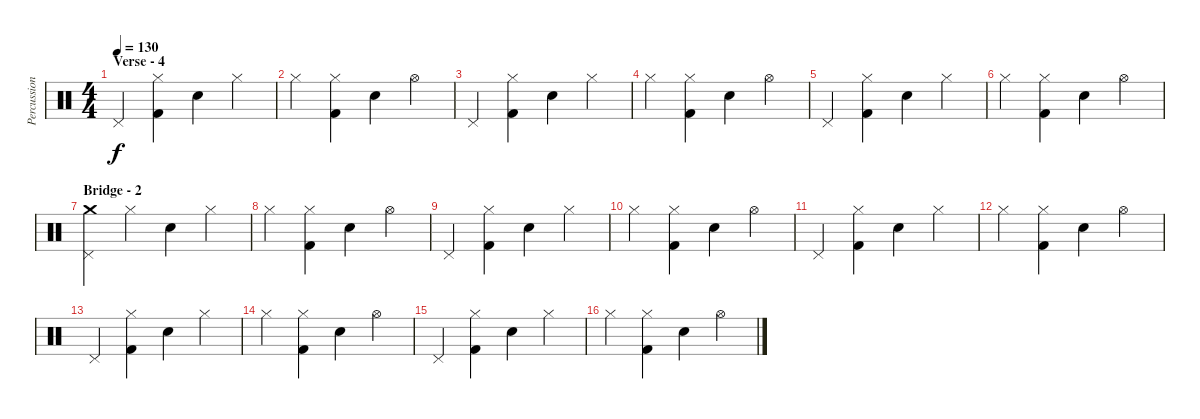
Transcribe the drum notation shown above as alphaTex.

\track ("Percussion" "Percussion") {instrument percussion}
\staff {score}
\articulation defaults
\ts (4 4)
\section ("" "Verse - 4")
\tempo 130
\clef neutral
\ks c "Pedal Hi-Hat (hit)".4{dy f}
("Hi-Hat (closed)" "Kick (hit) 2").4 "Snare (hit) 2".4 "Hi-Hat (closed)".4 |
"Hi-Hat (closed)".4 ("Hi-Hat (closed)" "Kick (hit) 2").4 "Snare (hit) 2".4 "Hi-Hat (open)".4 |
"Pedal Hi-Hat (hit)".4 ("Hi-Hat (closed)" "Kick (hit) 2").4 "Snare (hit) 2".4 "Hi-Hat (closed)".4 |
"Hi-Hat (closed)".4 ("Hi-Hat (closed)" "Kick (hit) 2").4 "Snare (hit) 2".4 "Hi-Hat (open)".4 |
"Pedal Hi-Hat (hit)".4 ("Hi-Hat (closed)" "Kick (hit) 2").4 "Snare (hit) 2".4 "Hi-Hat (closed)".4 |
"Hi-Hat (closed)".4 ("Hi-Hat (closed)" "Kick (hit) 2").4 "Snare (hit) 2".4 "Hi-Hat (open)".4 |
\section ("" "Bridge - 2")
("Crash medium (hit)" "Pedal Hi-Hat (hit)").4 "Hi-Hat (closed)".4 "Snare (hit) 2".4 "Hi-Hat (closed)".4 |
"Hi-Hat (closed)".4 ("Hi-Hat (closed)" "Kick (hit) 2").4 "Snare (hit) 2".4 "Hi-Hat (open)".4 |
"Pedal Hi-Hat (hit)".4 ("Hi-Hat (closed)" "Kick (hit) 2").4 "Snare (hit) 2".4 "Hi-Hat (closed)".4 |
"Hi-Hat (closed)".4 ("Hi-Hat (closed)" "Kick (hit) 2").4 "Snare (hit) 2".4 "Hi-Hat (open)".4 |
"Pedal Hi-Hat (hit)".4 ("Hi-Hat (closed)" "Kick (hit) 2").4 "Snare (hit) 2".4 "Hi-Hat (closed)".4 |
"Hi-Hat (closed)".4 ("Hi-Hat (closed)" "Kick (hit) 2").4 "Snare (hit) 2".4 "Hi-Hat (open)".4 |
"Pedal Hi-Hat (hit)".4 ("Hi-Hat (closed)" "Kick (hit) 2").4 "Snare (hit) 2".4 "Hi-Hat (closed)".4 |
"Hi-Hat (closed)".4 ("Hi-Hat (closed)" "Kick (hit) 2").4 "Snare (hit) 2".4 "Hi-Hat (open)".4 |
"Pedal Hi-Hat (hit)".4 ("Hi-Hat (closed)" "Kick (hit) 2").4 "Snare (hit) 2".4 "Hi-Hat (closed)".4 |
"Hi-Hat (closed)".4 ("Hi-Hat (closed)" "Kick (hit) 2").4 "Snare (hit) 2".4 "Hi-Hat (open)".4
